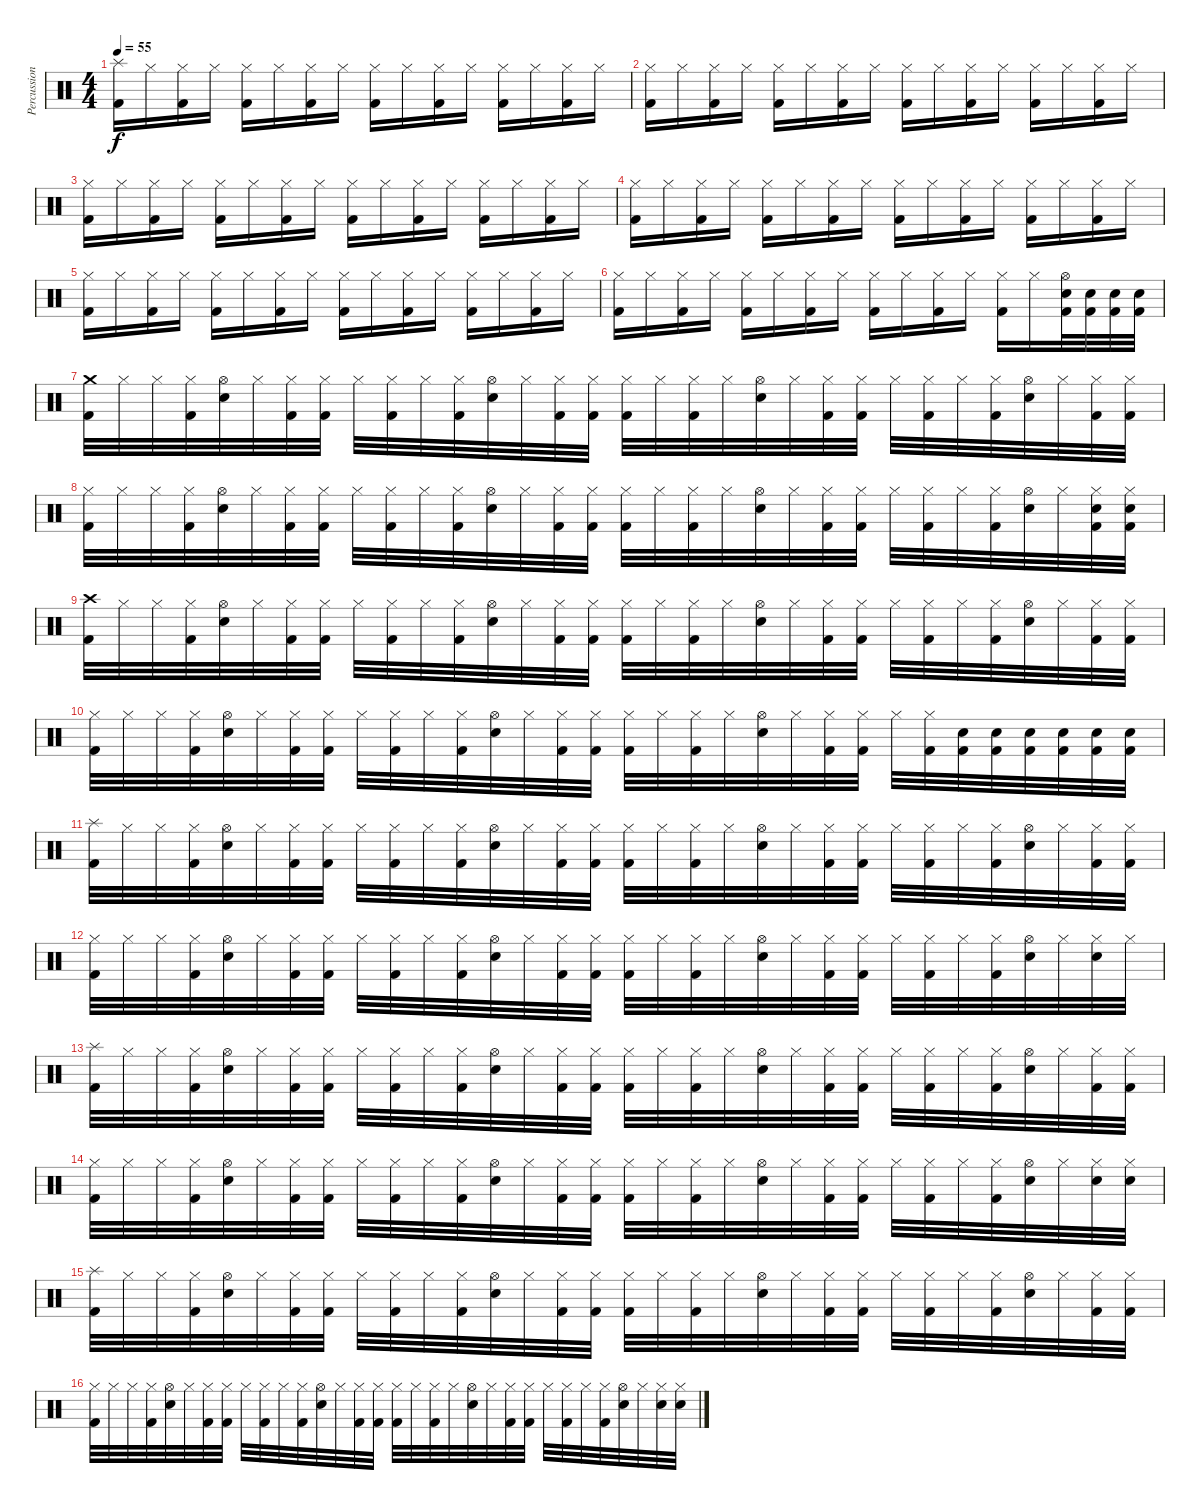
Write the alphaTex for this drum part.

\track ("Percussion" "Percussion") {instrument percussion}
\staff {score}
\articulation defaults
\ts (4 4)
\tempo 55
\clef neutral
\ks c
("Splash (hit)" "Kick (hit) 2").16{dy f} "Hi-Hat (closed)".16 ("Hi-Hat (closed)" "Kick (hit) 2").16 "Hi-Hat (closed)".16 ("Hi-Hat (closed)" "Kick (hit) 2").16 "Hi-Hat (closed)".16 ("Hi-Hat (closed)" "Kick (hit) 2").16 "Hi-Hat (closed)".16 ("Hi-Hat (closed)" "Kick (hit) 2").16 "Hi-Hat (closed)".16 ("Hi-Hat (closed)" "Kick (hit) 2").16 "Hi-Hat (closed)".16 ("Hi-Hat (closed)" "Kick (hit) 2").16 "Hi-Hat (closed)".16 ("Hi-Hat (closed)" "Kick (hit) 2").16 "Hi-Hat (closed)".16 |
("Hi-Hat (closed)" "Kick (hit) 2").16 "Hi-Hat (closed)".16 ("Hi-Hat (closed)" "Kick (hit) 2").16 "Hi-Hat (closed)".16 ("Hi-Hat (closed)" "Kick (hit) 2").16 "Hi-Hat (closed)".16 ("Hi-Hat (closed)" "Kick (hit) 2").16 "Hi-Hat (closed)".16 ("Hi-Hat (closed)" "Kick (hit) 2").16 "Hi-Hat (closed)".16 ("Hi-Hat (closed)" "Kick (hit) 2").16 "Hi-Hat (closed)".16 ("Hi-Hat (closed)" "Kick (hit) 2").16 "Hi-Hat (closed)".16 ("Hi-Hat (closed)" "Kick (hit) 2").16 "Hi-Hat (closed)".16 |
("Hi-Hat (closed)" "Kick (hit) 2").16 "Hi-Hat (closed)".16 ("Hi-Hat (closed)" "Kick (hit) 2").16 "Hi-Hat (closed)".16 ("Hi-Hat (closed)" "Kick (hit) 2").16 "Hi-Hat (closed)".16 ("Hi-Hat (closed)" "Kick (hit) 2").16 "Hi-Hat (closed)".16 ("Hi-Hat (closed)" "Kick (hit) 2").16 "Hi-Hat (closed)".16 ("Hi-Hat (closed)" "Kick (hit) 2").16 "Hi-Hat (closed)".16 ("Hi-Hat (closed)" "Kick (hit) 2").16 "Hi-Hat (closed)".16 ("Hi-Hat (closed)" "Kick (hit) 2").16 "Hi-Hat (closed)".16 |
("Hi-Hat (closed)" "Kick (hit) 2").16 "Hi-Hat (closed)".16 ("Hi-Hat (closed)" "Kick (hit) 2").16 "Hi-Hat (closed)".16 ("Hi-Hat (closed)" "Kick (hit) 2").16 "Hi-Hat (closed)".16 ("Hi-Hat (closed)" "Kick (hit) 2").16 "Hi-Hat (closed)".16 ("Hi-Hat (closed)" "Kick (hit) 2").16 "Hi-Hat (closed)".16 ("Hi-Hat (closed)" "Kick (hit) 2").16 "Hi-Hat (closed)".16 ("Hi-Hat (closed)" "Kick (hit) 2").16 "Hi-Hat (closed)".16 ("Hi-Hat (closed)" "Kick (hit) 2").16 "Hi-Hat (closed)".16 |
("Hi-Hat (closed)" "Kick (hit) 2").16 "Hi-Hat (closed)".16 ("Hi-Hat (closed)" "Kick (hit) 2").16 "Hi-Hat (closed)".16 ("Hi-Hat (closed)" "Kick (hit) 2").16 "Hi-Hat (closed)".16 ("Hi-Hat (closed)" "Kick (hit) 2").16 "Hi-Hat (closed)".16 ("Hi-Hat (closed)" "Kick (hit) 2").16 "Hi-Hat (closed)".16 ("Hi-Hat (closed)" "Kick (hit) 2").16 "Hi-Hat (closed)".16 ("Hi-Hat (closed)" "Kick (hit) 2").16 "Hi-Hat (closed)".16 ("Hi-Hat (closed)" "Kick (hit) 2").16 "Hi-Hat (closed)".16 |
("Hi-Hat (closed)" "Kick (hit) 2").16 "Hi-Hat (closed)".16 ("Hi-Hat (closed)" "Kick (hit) 2").16 "Hi-Hat (closed)".16 ("Hi-Hat (closed)" "Kick (hit) 2").16 "Hi-Hat (closed)".16 ("Hi-Hat (closed)" "Kick (hit) 2").16 "Hi-Hat (closed)".16 ("Hi-Hat (closed)" "Kick (hit) 2").16 "Hi-Hat (closed)".16 ("Hi-Hat (closed)" "Kick (hit) 2").16 "Hi-Hat (closed)".16 ("Hi-Hat (closed)" "Kick (hit) 2").16 "Hi-Hat (closed)".16 ("Hi-Hat (open)" "Electric Snare (hit)" "Kick (hit) 2").32 ("Electric Snare (hit)" "Kick (hit) 2").32 ("Electric Snare (hit)" "Kick (hit) 2").32 ("Electric Snare (hit)" "Kick (hit) 2").32 |
("Crash medium (hit)" "Kick (hit) 2").32 "Hi-Hat (closed)".32 "Hi-Hat (closed)".32 ("Hi-Hat (closed)" "Kick (hit) 2").32 ("Hi-Hat (open)" "Electric Snare (hit)").32 "Hi-Hat (closed)".32 ("Hi-Hat (closed)" "Kick (hit) 2").32 ("Hi-Hat (closed)" "Kick (hit) 2").32 "Hi-Hat (closed)".32 ("Hi-Hat (closed)" "Kick (hit) 2").32 "Hi-Hat (closed)".32 ("Hi-Hat (closed)" "Kick (hit) 2").32 ("Hi-Hat (open)" "Electric Snare (hit)").32 "Hi-Hat (closed)".32 ("Hi-Hat (closed)" "Kick (hit) 2").32 ("Hi-Hat (closed)" "Kick (hit) 2").32 ("Hi-Hat (closed)" "Kick (hit) 2").32 "Hi-Hat (closed)".32 ("Hi-Hat (closed)" "Kick (hit) 2").32 "Hi-Hat (closed)".32 ("Hi-Hat (open)" "Electric Snare (hit)").32 "Hi-Hat (closed)".32 ("Hi-Hat (closed)" "Kick (hit) 2").32 ("Hi-Hat (closed)" "Kick (hit) 2").32 "Hi-Hat (closed)".32 ("Hi-Hat (closed)" "Kick (hit) 2").32 "Hi-Hat (closed)".32 ("Hi-Hat (closed)" "Kick (hit) 2").32 ("Hi-Hat (open)" "Electric Snare (hit)").32 "Hi-Hat (closed)".32 ("Hi-Hat (closed)" "Kick (hit) 2").32 ("Hi-Hat (closed)" "Kick (hit) 2").32 |
("Hi-Hat (closed)" "Kick (hit) 2").32 "Hi-Hat (closed)".32 "Hi-Hat (closed)".32 ("Hi-Hat (closed)" "Kick (hit) 2").32 ("Hi-Hat (open)" "Electric Snare (hit)").32 "Hi-Hat (closed)".32 ("Hi-Hat (closed)" "Kick (hit) 2").32 ("Hi-Hat (closed)" "Kick (hit) 2").32 "Hi-Hat (closed)".32 ("Hi-Hat (closed)" "Kick (hit) 2").32 "Hi-Hat (closed)".32 ("Hi-Hat (closed)" "Kick (hit) 2").32 ("Hi-Hat (open)" "Electric Snare (hit)").32 "Hi-Hat (closed)".32 ("Hi-Hat (closed)" "Kick (hit) 2").32 ("Hi-Hat (closed)" "Kick (hit) 2").32 ("Hi-Hat (closed)" "Kick (hit) 2").32 "Hi-Hat (closed)".32 ("Hi-Hat (closed)" "Kick (hit) 2").32 "Hi-Hat (closed)".32 ("Hi-Hat (open)" "Electric Snare (hit)").32 "Hi-Hat (closed)".32 ("Hi-Hat (closed)" "Kick (hit) 2").32 ("Hi-Hat (closed)" "Kick (hit) 2").32 "Hi-Hat (closed)".32 ("Hi-Hat (closed)" "Kick (hit) 2").32 "Hi-Hat (closed)".32 ("Hi-Hat (closed)" "Kick (hit) 2").32 ("Hi-Hat (open)" "Electric Snare (hit)").32 "Hi-Hat (closed)".32 ("Hi-Hat (closed)" "Electric Snare (hit)" "Kick (hit) 2").32 ("Hi-Hat (closed)" "Electric Snare (hit)" "Kick (hit) 2").32 |
("Crash high (hit)" "Kick (hit) 2").32 "Hi-Hat (closed)".32 "Hi-Hat (closed)".32 ("Hi-Hat (closed)" "Kick (hit) 2").32 ("Hi-Hat (open)" "Electric Snare (hit)").32 "Hi-Hat (closed)".32 ("Hi-Hat (closed)" "Kick (hit) 2").32 ("Hi-Hat (closed)" "Kick (hit) 2").32 "Hi-Hat (closed)".32 ("Hi-Hat (closed)" "Kick (hit) 2").32 "Hi-Hat (closed)".32 ("Hi-Hat (closed)" "Kick (hit) 2").32 ("Hi-Hat (open)" "Electric Snare (hit)").32 "Hi-Hat (closed)".32 ("Hi-Hat (closed)" "Kick (hit) 2").32 ("Hi-Hat (closed)" "Kick (hit) 2").32 ("Hi-Hat (closed)" "Kick (hit) 2").32 "Hi-Hat (closed)".32 ("Hi-Hat (closed)" "Kick (hit) 2").32 "Hi-Hat (closed)".32 ("Hi-Hat (open)" "Electric Snare (hit)").32 "Hi-Hat (closed)".32 ("Hi-Hat (closed)" "Kick (hit) 2").32 ("Hi-Hat (closed)" "Kick (hit) 2").32 "Hi-Hat (closed)".32 ("Hi-Hat (closed)" "Kick (hit) 2").32 "Hi-Hat (closed)".32 ("Hi-Hat (closed)" "Kick (hit) 2").32 ("Hi-Hat (open)" "Electric Snare (hit)").32 "Hi-Hat (closed)".32 ("Hi-Hat (closed)" "Kick (hit) 2").32 ("Hi-Hat (closed)" "Kick (hit) 2").32 |
("Hi-Hat (closed)" "Kick (hit) 2").32 "Hi-Hat (closed)".32 "Hi-Hat (closed)".32 ("Hi-Hat (closed)" "Kick (hit) 2").32 ("Hi-Hat (open)" "Electric Snare (hit)").32 "Hi-Hat (closed)".32 ("Hi-Hat (closed)" "Kick (hit) 2").32 ("Hi-Hat (closed)" "Kick (hit) 2").32 "Hi-Hat (closed)".32 ("Hi-Hat (closed)" "Kick (hit) 2").32 "Hi-Hat (closed)".32 ("Hi-Hat (closed)" "Kick (hit) 2").32 ("Hi-Hat (open)" "Electric Snare (hit)").32 "Hi-Hat (closed)".32 ("Hi-Hat (closed)" "Kick (hit) 2").32 ("Hi-Hat (closed)" "Kick (hit) 2").32 ("Hi-Hat (closed)" "Kick (hit) 2").32 "Hi-Hat (closed)".32 ("Hi-Hat (closed)" "Kick (hit) 2").32 "Hi-Hat (closed)".32 ("Hi-Hat (open)" "Electric Snare (hit)").32 "Hi-Hat (closed)".32 ("Hi-Hat (closed)" "Kick (hit) 2").32 ("Hi-Hat (closed)" "Kick (hit) 2").32 "Hi-Hat (closed)".32 ("Hi-Hat (closed)" "Kick (hit) 2").32 ("Electric Snare (hit)" "Kick (hit) 2").32 ("Electric Snare (hit)" "Kick (hit) 2").32 ("Electric Snare (hit)" "Kick (hit) 2").32 ("Electric Snare (hit)" "Kick (hit) 2").32 ("Electric Snare (hit)" "Kick (hit) 2").32 ("Electric Snare (hit)" "Kick (hit) 2").32 |
("Splash (hit)" "Kick (hit) 2").32 "Hi-Hat (closed)".32 "Hi-Hat (closed)".32 ("Hi-Hat (closed)" "Kick (hit) 2").32 ("Hi-Hat (open)" "Electric Snare (hit)").32 "Hi-Hat (closed)".32 ("Hi-Hat (closed)" "Kick (hit) 2").32 ("Hi-Hat (closed)" "Kick (hit) 2").32 "Hi-Hat (closed)".32 ("Hi-Hat (closed)" "Kick (hit) 2").32 "Hi-Hat (closed)".32 ("Hi-Hat (closed)" "Kick (hit) 2").32 ("Hi-Hat (open)" "Electric Snare (hit)").32 "Hi-Hat (closed)".32 ("Hi-Hat (closed)" "Kick (hit) 2").32 ("Hi-Hat (closed)" "Kick (hit) 2").32 ("Hi-Hat (closed)" "Kick (hit) 2").32 "Hi-Hat (closed)".32 ("Hi-Hat (closed)" "Kick (hit) 2").32 "Hi-Hat (closed)".32 ("Hi-Hat (open)" "Electric Snare (hit)").32 "Hi-Hat (closed)".32 ("Hi-Hat (closed)" "Kick (hit) 2").32 ("Hi-Hat (closed)" "Kick (hit) 2").32 "Hi-Hat (closed)".32 ("Hi-Hat (closed)" "Kick (hit) 2").32 "Hi-Hat (closed)".32 ("Hi-Hat (closed)" "Kick (hit) 2").32 ("Hi-Hat (open)" "Electric Snare (hit)").32 "Hi-Hat (closed)".32 ("Hi-Hat (closed)" "Kick (hit) 2").32 ("Hi-Hat (closed)" "Kick (hit) 2").32 |
("Hi-Hat (closed)" "Kick (hit) 2").32 "Hi-Hat (closed)".32 "Hi-Hat (closed)".32 ("Hi-Hat (closed)" "Kick (hit) 2").32 ("Hi-Hat (open)" "Electric Snare (hit)").32 "Hi-Hat (closed)".32 ("Hi-Hat (closed)" "Kick (hit) 2").32 ("Hi-Hat (closed)" "Kick (hit) 2").32 "Hi-Hat (closed)".32 ("Hi-Hat (closed)" "Kick (hit) 2").32 "Hi-Hat (closed)".32 ("Hi-Hat (closed)" "Kick (hit) 2").32 ("Hi-Hat (open)" "Electric Snare (hit)").32 "Hi-Hat (closed)".32 ("Hi-Hat (closed)" "Kick (hit) 2").32 ("Hi-Hat (closed)" "Kick (hit) 2").32 ("Hi-Hat (closed)" "Kick (hit) 2").32 "Hi-Hat (closed)".32 ("Hi-Hat (closed)" "Kick (hit) 2").32 "Hi-Hat (closed)".32 ("Hi-Hat (open)" "Electric Snare (hit)").32 "Hi-Hat (closed)".32 ("Hi-Hat (closed)" "Kick (hit) 2").32 ("Hi-Hat (closed)" "Kick (hit) 2").32 "Hi-Hat (closed)".32 ("Hi-Hat (closed)" "Kick (hit) 2").32 "Hi-Hat (closed)".32 ("Hi-Hat (closed)" "Kick (hit) 2").32 ("Hi-Hat (open)" "Electric Snare (hit)").32 "Hi-Hat (closed)".32 ("Hi-Hat (closed)" "Electric Snare (hit)").32 "Hi-Hat (closed)".32 |
("Splash (hit)" "Kick (hit) 2").32 "Hi-Hat (closed)".32 "Hi-Hat (closed)".32 ("Hi-Hat (closed)" "Kick (hit) 2").32 ("Hi-Hat (open)" "Electric Snare (hit)").32 "Hi-Hat (closed)".32 ("Hi-Hat (closed)" "Kick (hit) 2").32 ("Hi-Hat (closed)" "Kick (hit) 2").32 "Hi-Hat (closed)".32 ("Hi-Hat (closed)" "Kick (hit) 2").32 "Hi-Hat (closed)".32 ("Hi-Hat (closed)" "Kick (hit) 2").32 ("Hi-Hat (open)" "Electric Snare (hit)").32 "Hi-Hat (closed)".32 ("Hi-Hat (closed)" "Kick (hit) 2").32 ("Hi-Hat (closed)" "Kick (hit) 2").32 ("Hi-Hat (closed)" "Kick (hit) 2").32 "Hi-Hat (closed)".32 ("Hi-Hat (closed)" "Kick (hit) 2").32 "Hi-Hat (closed)".32 ("Hi-Hat (open)" "Electric Snare (hit)").32 "Hi-Hat (closed)".32 ("Hi-Hat (closed)" "Kick (hit) 2").32 ("Hi-Hat (closed)" "Kick (hit) 2").32 "Hi-Hat (closed)".32 ("Hi-Hat (closed)" "Kick (hit) 2").32 "Hi-Hat (closed)".32 ("Hi-Hat (closed)" "Kick (hit) 2").32 ("Hi-Hat (open)" "Electric Snare (hit)").32 "Hi-Hat (closed)".32 ("Hi-Hat (closed)" "Kick (hit) 2").32 ("Hi-Hat (closed)" "Kick (hit) 2").32 |
("Hi-Hat (closed)" "Kick (hit) 2").32 "Hi-Hat (closed)".32 "Hi-Hat (closed)".32 ("Hi-Hat (closed)" "Kick (hit) 2").32 ("Hi-Hat (open)" "Electric Snare (hit)").32 "Hi-Hat (closed)".32 ("Hi-Hat (closed)" "Kick (hit) 2").32 ("Hi-Hat (closed)" "Kick (hit) 2").32 "Hi-Hat (closed)".32 ("Hi-Hat (closed)" "Kick (hit) 2").32 "Hi-Hat (closed)".32 ("Hi-Hat (closed)" "Kick (hit) 2").32 ("Hi-Hat (open)" "Electric Snare (hit)").32 "Hi-Hat (closed)".32 ("Hi-Hat (closed)" "Kick (hit) 2").32 ("Hi-Hat (closed)" "Kick (hit) 2").32 ("Hi-Hat (closed)" "Kick (hit) 2").32 "Hi-Hat (closed)".32 ("Hi-Hat (closed)" "Kick (hit) 2").32 "Hi-Hat (closed)".32 ("Hi-Hat (open)" "Electric Snare (hit)").32 "Hi-Hat (closed)".32 ("Hi-Hat (closed)" "Kick (hit) 2").32 ("Hi-Hat (closed)" "Kick (hit) 2").32 "Hi-Hat (closed)".32 ("Hi-Hat (closed)" "Kick (hit) 2").32 "Hi-Hat (closed)".32 ("Hi-Hat (closed)" "Kick (hit) 2").32 ("Hi-Hat (open)" "Electric Snare (hit)").32 "Hi-Hat (closed)".32 ("Hi-Hat (closed)" "Electric Snare (hit)").32 ("Hi-Hat (closed)" "Electric Snare (hit)").32 |
("Splash (hit)" "Kick (hit) 2").32 "Hi-Hat (closed)".32 "Hi-Hat (closed)".32 ("Hi-Hat (closed)" "Kick (hit) 2").32 ("Hi-Hat (open)" "Electric Snare (hit)").32 "Hi-Hat (closed)".32 ("Hi-Hat (closed)" "Kick (hit) 2").32 ("Hi-Hat (closed)" "Kick (hit) 2").32 "Hi-Hat (closed)".32 ("Hi-Hat (closed)" "Kick (hit) 2").32 "Hi-Hat (closed)".32 ("Hi-Hat (closed)" "Kick (hit) 2").32 ("Hi-Hat (open)" "Electric Snare (hit)").32 "Hi-Hat (closed)".32 ("Hi-Hat (closed)" "Kick (hit) 2").32 ("Hi-Hat (closed)" "Kick (hit) 2").32 ("Hi-Hat (closed)" "Kick (hit) 2").32 "Hi-Hat (closed)".32 ("Hi-Hat (closed)" "Kick (hit) 2").32 "Hi-Hat (closed)".32 ("Hi-Hat (open)" "Electric Snare (hit)").32 "Hi-Hat (closed)".32 ("Hi-Hat (closed)" "Kick (hit) 2").32 ("Hi-Hat (closed)" "Kick (hit) 2").32 "Hi-Hat (closed)".32 ("Hi-Hat (closed)" "Kick (hit) 2").32 "Hi-Hat (closed)".32 ("Hi-Hat (closed)" "Kick (hit) 2").32 ("Hi-Hat (open)" "Electric Snare (hit)").32 "Hi-Hat (closed)".32 ("Hi-Hat (closed)" "Kick (hit) 2").32 ("Hi-Hat (closed)" "Kick (hit) 2").32 |
("Hi-Hat (closed)" "Kick (hit) 2").32 "Hi-Hat (closed)".32 "Hi-Hat (closed)".32 ("Hi-Hat (closed)" "Kick (hit) 2").32 ("Hi-Hat (open)" "Electric Snare (hit)").32 "Hi-Hat (closed)".32 ("Hi-Hat (closed)" "Kick (hit) 2").32 ("Hi-Hat (closed)" "Kick (hit) 2").32 "Hi-Hat (closed)".32 ("Hi-Hat (closed)" "Kick (hit) 2").32 "Hi-Hat (closed)".32 ("Hi-Hat (closed)" "Kick (hit) 2").32 ("Hi-Hat (open)" "Electric Snare (hit)").32 "Hi-Hat (closed)".32 ("Hi-Hat (closed)" "Kick (hit) 2").32 ("Hi-Hat (closed)" "Kick (hit) 2").32 ("Hi-Hat (closed)" "Kick (hit) 2").32 "Hi-Hat (closed)".32 ("Hi-Hat (closed)" "Kick (hit) 2").32 "Hi-Hat (closed)".32 ("Hi-Hat (open)" "Electric Snare (hit)").32 "Hi-Hat (closed)".32 ("Hi-Hat (closed)" "Kick (hit) 2").32 ("Hi-Hat (closed)" "Kick (hit) 2").32 "Hi-Hat (closed)".32 ("Hi-Hat (closed)" "Kick (hit) 2").32 "Hi-Hat (closed)".32 ("Hi-Hat (closed)" "Kick (hit) 2").32 ("Hi-Hat (open)" "Electric Snare (hit)").32 "Hi-Hat (closed)".32 ("Hi-Hat (closed)" "Electric Snare (hit)").32 ("Hi-Hat (closed)" "Electric Snare (hit)").32
